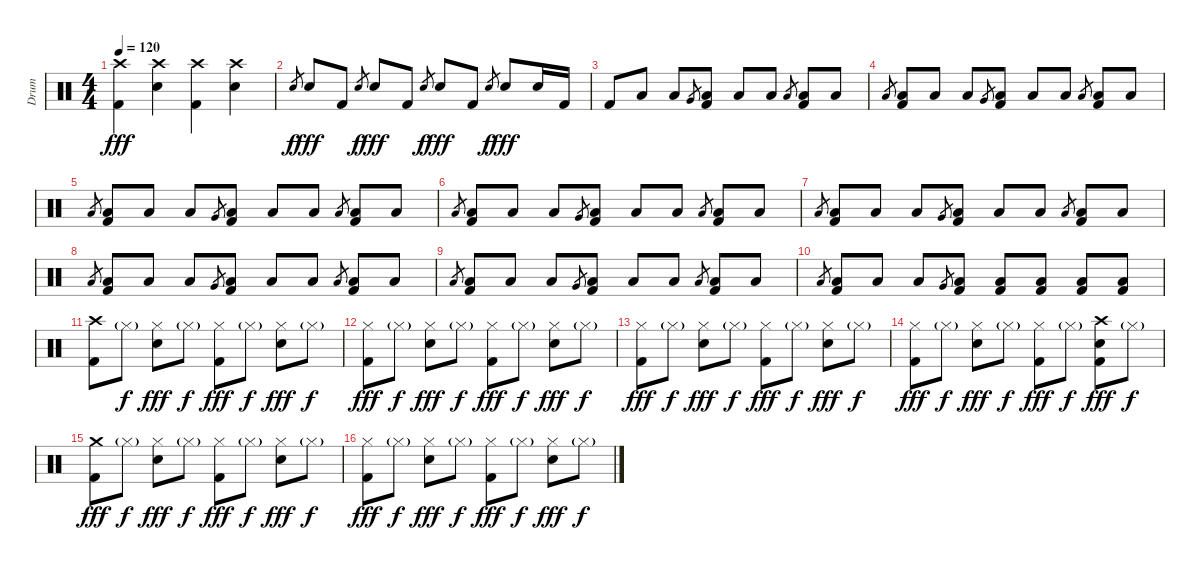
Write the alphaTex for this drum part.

\track ("Drum" "Drum") {instrument percussion}
\staff {score}
\articulation defaults
\ts (4 4)
\tempo 120
\clef neutral
\ks c
("Crash high (hit)" "Kick (hit) 2").4{dy fff} ("Crash high (hit)" "Snare (hit) 2").4 ("Crash high (hit)" "Kick (hit) 2").4 ("Crash high (hit)" "Snare (hit) 2").4 |
"Snare (hit) 2".8{gr dy f} "Snare (hit) 2".8{dy fff} "Kick (hit) 2".8 "Snare (hit) 2".8{gr dy f} "Snare (hit) 2".8{dy fff} "Kick (hit) 2".8 "Snare (hit) 2".8{gr dy f} "Snare (hit) 2".8{dy fff} "Kick (hit) 2".8 "Snare (hit) 2".8{gr dy f} "Snare (hit) 2".8{dy fff} "Snare (hit)".16 "Kick (hit) 2".16 |
"Kick (hit) 2".8 "Low Floor Tom (hit)".8 "Low Floor Tom (hit)".8 "Very Low Tom (hit)".8{gr} ("Low Floor Tom (hit)" "Kick (hit) 2").8 "Low Floor Tom (hit)".8 "Low Floor Tom (hit)".8 "Low Floor Tom (hit)".8{gr} ("Low Floor Tom (hit)" "Kick (hit) 2").8 "Low Floor Tom (hit)".8 |
"Low Floor Tom (hit)".8{gr} ("Low Floor Tom (hit)" "Kick (hit) 2").8 "Low Floor Tom (hit)".8 "Low Floor Tom (hit)".8 "Very Low Tom (hit)".8{gr} ("Low Floor Tom (hit)" "Kick (hit) 2").8 "Low Floor Tom (hit)".8 "Low Floor Tom (hit)".8 "Low Floor Tom (hit)".8{gr} ("Low Floor Tom (hit)" "Kick (hit) 2").8 "Low Floor Tom (hit)".8 |
"Low Floor Tom (hit)".8{gr} ("Low Floor Tom (hit)" "Kick (hit) 2").8 "Low Floor Tom (hit)".8 "Low Floor Tom (hit)".8 "Very Low Tom (hit)".8{gr} ("Low Floor Tom (hit)" "Kick (hit) 2").8 "Low Floor Tom (hit)".8 "Low Floor Tom (hit)".8 "Low Floor Tom (hit)".8{gr} ("Low Floor Tom (hit)" "Kick (hit) 2").8 "Low Floor Tom (hit)".8 |
"Low Floor Tom (hit)".8{gr} ("Low Floor Tom (hit)" "Kick (hit) 2").8 "Low Floor Tom (hit)".8 "Low Floor Tom (hit)".8 "Very Low Tom (hit)".8{gr} ("Low Floor Tom (hit)" "Kick (hit) 2").8 "Low Floor Tom (hit)".8 "Low Floor Tom (hit)".8 "Low Floor Tom (hit)".8{gr} ("Low Floor Tom (hit)" "Kick (hit) 2").8 "Low Floor Tom (hit)".8 |
"Low Floor Tom (hit)".8{gr} ("Low Floor Tom (hit)" "Kick (hit) 2").8 "Low Floor Tom (hit)".8 "Low Floor Tom (hit)".8 "Very Low Tom (hit)".8{gr} ("Low Floor Tom (hit)" "Kick (hit) 2").8 "Low Floor Tom (hit)".8 "Low Floor Tom (hit)".8 "Low Floor Tom (hit)".8{gr} ("Low Floor Tom (hit)" "Kick (hit) 2").8 "Low Floor Tom (hit)".8 |
"Low Floor Tom (hit)".8{gr} ("Low Floor Tom (hit)" "Kick (hit) 2").8 "Low Floor Tom (hit)".8 "Low Floor Tom (hit)".8 "Very Low Tom (hit)".8{gr} ("Low Floor Tom (hit)" "Kick (hit) 2").8 "Low Floor Tom (hit)".8 "Low Floor Tom (hit)".8 "Low Floor Tom (hit)".8{gr} ("Low Floor Tom (hit)" "Kick (hit) 2").8 "Low Floor Tom (hit)".8 |
"Low Floor Tom (hit)".8{gr} ("Low Floor Tom (hit)" "Kick (hit) 2").8 "Low Floor Tom (hit)".8 "Low Floor Tom (hit)".8 "Very Low Tom (hit)".8{gr} ("Low Floor Tom (hit)" "Kick (hit) 2").8 "Low Floor Tom (hit)".8 "Low Floor Tom (hit)".8 "Low Floor Tom (hit)".8{gr} ("Low Floor Tom (hit)" "Kick (hit) 2").8 "Low Floor Tom (hit)".8 |
"Low Floor Tom (hit)".8{gr} ("Low Floor Tom (hit)" "Kick (hit) 2").8 "Low Floor Tom (hit)".8 "Low Floor Tom (hit)".8 "Very Low Tom (hit)".8{gr} ("Low Floor Tom (hit)" "Kick (hit) 2").8 ("Low Floor Tom (hit)" "Kick (hit) 2").8 ("Low Floor Tom (hit)" "Kick (hit) 2").8 ("Low Floor Tom (hit)" "Kick (hit) 2").8 ("Low Floor Tom (hit)" "Kick (hit) 2").8 |
("Crash high (hit)" "Kick (hit) 2").8 "Hi-Hat (closed)"{g}.8{dy f} ("Hi-Hat (closed)" "Snare (hit) 2").8{dy fff} "Hi-Hat (closed)"{g}.8{dy f} ("Hi-Hat (closed)" "Kick (hit) 2").8{dy fff} "Hi-Hat (closed)"{g}.8{dy f} ("Hi-Hat (closed)" "Snare (hit) 2").8{dy fff} "Hi-Hat (closed)"{g}.8{dy f} |
("Hi-Hat (closed)" "Kick (hit) 2").8{dy fff} "Hi-Hat (closed)"{g}.8{dy f} ("Hi-Hat (closed)" "Snare (hit) 2").8{dy fff} "Hi-Hat (closed)"{g}.8{dy f} ("Hi-Hat (closed)" "Kick (hit) 2").8{dy fff} "Hi-Hat (closed)"{g}.8{dy f} ("Hi-Hat (closed)" "Snare (hit) 2").8{dy fff} "Hi-Hat (closed)"{g}.8{dy f} |
("Hi-Hat (closed)" "Kick (hit) 2").8{dy fff} "Hi-Hat (closed)"{g}.8{dy f} ("Hi-Hat (closed)" "Snare (hit) 2").8{dy fff} "Hi-Hat (closed)"{g}.8{dy f} ("Hi-Hat (closed)" "Kick (hit) 2").8{dy fff} "Hi-Hat (closed)"{g}.8{dy f} ("Hi-Hat (closed)" "Snare (hit) 2").8{dy fff} "Hi-Hat (closed)"{g}.8{dy f} |
("Hi-Hat (closed)" "Kick (hit) 2").8{dy fff} "Hi-Hat (closed)"{g}.8{dy f} ("Hi-Hat (closed)" "Snare (hit) 2").8{dy fff} "Hi-Hat (closed)"{g}.8{dy f} ("Hi-Hat (closed)" "Kick (hit) 2").8{dy fff} "Hi-Hat (closed)"{g}.8{dy f} ("Crash high (hit)" "Snare (hit) 2" "Kick (hit) 2").8{dy fff} "Hi-Hat (closed)"{g}.8{dy f} |
("Crash medium (hit)" "Kick (hit) 2").8{dy fff} "Hi-Hat (closed)"{g}.8{dy f} ("Hi-Hat (closed)" "Snare (hit) 2").8{dy fff} "Hi-Hat (closed)"{g}.8{dy f} ("Hi-Hat (closed)" "Kick (hit) 2").8{dy fff} "Hi-Hat (closed)"{g}.8{dy f} ("Hi-Hat (closed)" "Snare (hit) 2").8{dy fff} "Hi-Hat (closed)"{g}.8{dy f} |
("Hi-Hat (closed)" "Kick (hit) 2").8{dy fff} "Hi-Hat (closed)"{g}.8{dy f} ("Hi-Hat (closed)" "Snare (hit) 2").8{dy fff} "Hi-Hat (closed)"{g}.8{dy f} ("Hi-Hat (closed)" "Kick (hit) 2").8{dy fff} "Hi-Hat (closed)"{g}.8{dy f} ("Hi-Hat (closed)" "Snare (hit) 2").8{dy fff} "Hi-Hat (closed)"{g}.8{dy f}
